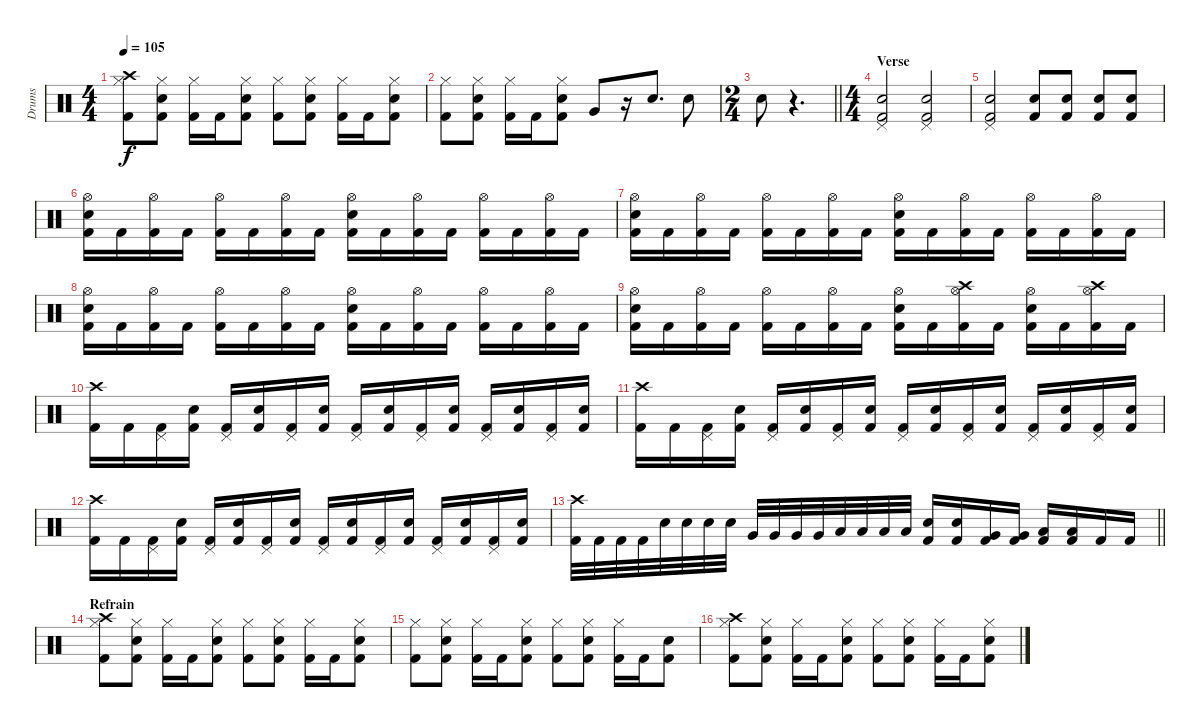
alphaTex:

\track ("Drums" "Drums") {instrument percussion}
\staff {score}
\articulation defaults
\ts (4 4)
\tempo 105
\clef neutral
\ks c
("Hi-Hat (closed)" "Crash high (hit)" "Kick (hit) 2").8{dy f} ("Hi-Hat (closed)" "Electric Snare (hit)" "Kick (hit) 2").8 ("Hi-Hat (closed)" "Kick (hit) 2").16 "Kick (hit) 2".16 ("Hi-Hat (closed)" "Electric Snare (hit)" "Kick (hit) 2").8 ("Hi-Hat (closed)" "Kick (hit) 2").8 ("Hi-Hat (closed)" "Electric Snare (hit)" "Kick (hit) 2").8 ("Hi-Hat (closed)" "Kick (hit) 2").16 "Kick (hit) 2".16 ("Hi-Hat (closed)" "Electric Snare (hit)" "Kick (hit) 2").8 |
("Hi-Hat (closed)" "Kick (hit) 2").8 ("Hi-Hat (closed)" "Electric Snare (hit)" "Kick (hit) 2").8 ("Hi-Hat (closed)" "Kick (hit) 2").16 "Kick (hit) 2".16 ("Hi-Hat (closed)" "Electric Snare (hit)" "Kick (hit) 2").8 "Very Low Tom (hit)".8 r.16 "Electric Snare (hit)".8{d} "Electric Snare (hit)".8 |
\ts (2 4)
\barLineRight lightlight "Electric Snare (hit)".8
r.4{d} |
\ts (4 4)
\section ("" "Verse")
("Pedal Hi-Hat (hit)" "Snare (hit) 2" "Kick (hit) 2").2 ("Pedal Hi-Hat (hit)" "Snare (hit) 2" "Kick (hit) 2").2 |
("Pedal Hi-Hat (hit)" "Snare (hit) 2" "Kick (hit) 2").2 ("Electric Snare (hit)" "Kick (hit) 2").8 ("Electric Snare (hit)" "Kick (hit) 2").8 ("Electric Snare (hit)" "Kick (hit) 2").8 ("Electric Snare (hit)" "Kick (hit) 2").8 |
("Hi-Hat (open)" "Electric Snare (hit)" "Kick (hit) 2").16 "Kick (hit) 2".16 ("Hi-Hat (open)" "Kick (hit) 2").16 "Kick (hit) 2".16 ("Hi-Hat (open)" "Kick (hit) 2").16 "Kick (hit) 2".16 ("Hi-Hat (open)" "Kick (hit) 2").16 "Kick (hit) 2".16 ("Hi-Hat (open)" "Electric Snare (hit)" "Kick (hit) 2").16 "Kick (hit) 2".16 ("Hi-Hat (open)" "Kick (hit) 2").16 "Kick (hit) 2".16 ("Hi-Hat (open)" "Kick (hit) 2").16 "Kick (hit) 2".16 ("Hi-Hat (open)" "Kick (hit) 2").16 "Kick (hit) 2".16 |
("Hi-Hat (open)" "Electric Snare (hit)" "Kick (hit) 2").16 "Kick (hit) 2".16 ("Hi-Hat (open)" "Kick (hit) 2").16 "Kick (hit) 2".16 ("Hi-Hat (open)" "Kick (hit) 2").16 "Kick (hit) 2".16 ("Hi-Hat (open)" "Kick (hit) 2").16 "Kick (hit) 2".16 ("Hi-Hat (open)" "Electric Snare (hit)" "Kick (hit) 2").16 "Kick (hit) 2".16 ("Hi-Hat (open)" "Kick (hit) 2").16 "Kick (hit) 2".16 ("Hi-Hat (open)" "Kick (hit) 2").16 "Kick (hit) 2".16 ("Hi-Hat (open)" "Kick (hit) 2").16 "Kick (hit) 2".16 |
("Hi-Hat (open)" "Electric Snare (hit)" "Kick (hit) 2").16 "Kick (hit) 2".16 ("Hi-Hat (open)" "Kick (hit) 2").16 "Kick (hit) 2".16 ("Hi-Hat (open)" "Kick (hit) 2").16 "Kick (hit) 2".16 ("Hi-Hat (open)" "Kick (hit) 2").16 "Kick (hit) 2".16 ("Hi-Hat (open)" "Electric Snare (hit)" "Kick (hit) 2").16 "Kick (hit) 2".16 ("Hi-Hat (open)" "Kick (hit) 2").16 "Kick (hit) 2".16 ("Hi-Hat (open)" "Kick (hit) 2").16 "Kick (hit) 2".16 ("Hi-Hat (open)" "Kick (hit) 2").16 "Kick (hit) 2".16 |
("Hi-Hat (open)" "Electric Snare (hit)" "Kick (hit) 2").16 "Kick (hit) 2".16 ("Hi-Hat (open)" "Kick (hit) 2").16 "Kick (hit) 2".16 ("Hi-Hat (open)" "Kick (hit) 2").16 "Kick (hit) 2".16 ("Hi-Hat (open)" "Kick (hit) 2").16 "Kick (hit) 2".16 ("Hi-Hat (open)" "Electric Snare (hit)" "Kick (hit) 2").16 "Kick (hit) 2".16 ("Hi-Hat (open)" "Crash high (hit)" "Kick (hit) 2").16 "Kick (hit) 2".16 ("Hi-Hat (open)" "Electric Snare (hit)" "Kick (hit) 2").16 "Kick (hit) 2".16 ("Hi-Hat (open)" "Crash high (hit)" "Kick (hit) 2").16 "Kick (hit) 2".16 |
("Crash high (hit)" "Kick (hit) 2").16 "Kick (hit) 2".16 ("Pedal Hi-Hat (hit)" "Kick (hit) 2").16 ("Electric Snare (hit)" "Kick (hit) 2").16 ("Pedal Hi-Hat (hit)" "Kick (hit) 2").16 ("Electric Snare (hit)" "Kick (hit) 2").16 ("Pedal Hi-Hat (hit)" "Kick (hit) 2").16 ("Electric Snare (hit)" "Kick (hit) 2").16 ("Pedal Hi-Hat (hit)" "Kick (hit) 2").16 ("Electric Snare (hit)" "Kick (hit) 2").16 ("Pedal Hi-Hat (hit)" "Kick (hit) 2").16 ("Electric Snare (hit)" "Kick (hit) 2").16 ("Pedal Hi-Hat (hit)" "Kick (hit) 2").16 ("Electric Snare (hit)" "Kick (hit) 2").16 ("Pedal Hi-Hat (hit)" "Kick (hit) 2").16 ("Electric Snare (hit)" "Kick (hit) 2").16 |
("Crash high (hit)" "Kick (hit) 2").16 "Kick (hit) 2".16 ("Pedal Hi-Hat (hit)" "Kick (hit) 2").16 ("Electric Snare (hit)" "Kick (hit) 2").16 ("Pedal Hi-Hat (hit)" "Kick (hit) 2").16 ("Electric Snare (hit)" "Kick (hit) 2").16 ("Pedal Hi-Hat (hit)" "Kick (hit) 2").16 ("Electric Snare (hit)" "Kick (hit) 2").16 ("Pedal Hi-Hat (hit)" "Kick (hit) 2").16 ("Electric Snare (hit)" "Kick (hit) 2").16 ("Pedal Hi-Hat (hit)" "Kick (hit) 2").16 ("Electric Snare (hit)" "Kick (hit) 2").16 ("Pedal Hi-Hat (hit)" "Kick (hit) 2").16 ("Electric Snare (hit)" "Kick (hit) 2").16 ("Pedal Hi-Hat (hit)" "Kick (hit) 2").16 ("Electric Snare (hit)" "Kick (hit) 2").16 |
("Crash high (hit)" "Kick (hit) 2").16 "Kick (hit) 2".16 ("Pedal Hi-Hat (hit)" "Kick (hit) 2").16 ("Electric Snare (hit)" "Kick (hit) 2").16 ("Pedal Hi-Hat (hit)" "Kick (hit) 2").16 ("Electric Snare (hit)" "Kick (hit) 2").16 ("Pedal Hi-Hat (hit)" "Kick (hit) 2").16 ("Electric Snare (hit)" "Kick (hit) 2").16 ("Pedal Hi-Hat (hit)" "Kick (hit) 2").16 ("Electric Snare (hit)" "Kick (hit) 2").16 ("Pedal Hi-Hat (hit)" "Kick (hit) 2").16 ("Electric Snare (hit)" "Kick (hit) 2").16 ("Pedal Hi-Hat (hit)" "Kick (hit) 2").16 ("Electric Snare (hit)" "Kick (hit) 2").16 ("Pedal Hi-Hat (hit)" "Kick (hit) 2").16 ("Electric Snare (hit)" "Kick (hit) 2").16 |
\barLineRight lightlight
("Crash high (hit)" "Kick (hit) 2").32 "Kick (hit) 2".32 "Kick (hit) 2".32 "Kick (hit) 2".32 "Electric Snare (hit)".32 "Electric Snare (hit)".32 "Electric Snare (hit)".32 "Electric Snare (hit)".32 "Very Low Tom (hit)".32 "Very Low Tom (hit)".32 "Very Low Tom (hit)".32 "Very Low Tom (hit)".32 "Low Tom (hit)".32 "Low Tom (hit)".32 "Low Tom (hit)".32 "Low Tom (hit)".32 ("Electric Snare (hit)" "Kick (hit) 2").16 ("Electric Snare (hit)" "Kick (hit) 2").16 ("Very Low Tom (hit)" "Kick (hit) 2").16 ("Very Low Tom (hit)" "Kick (hit) 2").16 ("Low Floor Tom (hit)" "Kick (hit) 2").16 ("Low Floor Tom (hit)" "Kick (hit) 2").16 "Kick (hit) 2".16 "Kick (hit) 2".16 |
\section ("" "Refrain")
("Hi-Hat (closed)" "Crash high (hit)" "Kick (hit) 2").8 ("Hi-Hat (closed)" "Electric Snare (hit)" "Kick (hit) 2").8 ("Hi-Hat (closed)" "Kick (hit) 2").16 "Kick (hit) 2".16 ("Hi-Hat (closed)" "Electric Snare (hit)" "Kick (hit) 2").8 ("Hi-Hat (closed)" "Kick (hit) 2").8 ("Hi-Hat (closed)" "Electric Snare (hit)" "Kick (hit) 2").8 ("Hi-Hat (closed)" "Kick (hit) 2").16 "Kick (hit) 2".16 ("Hi-Hat (closed)" "Electric Snare (hit)" "Kick (hit) 2").8 |
("Hi-Hat (closed)" "Kick (hit) 2").8 ("Hi-Hat (closed)" "Electric Snare (hit)" "Kick (hit) 2").8 ("Hi-Hat (closed)" "Kick (hit) 2").16 "Kick (hit) 2".16 ("Hi-Hat (closed)" "Electric Snare (hit)" "Kick (hit) 2").8 ("Hi-Hat (closed)" "Kick (hit) 2").8 ("Hi-Hat (closed)" "Electric Snare (hit)" "Kick (hit) 2").8 ("Hi-Hat (closed)" "Kick (hit) 2").16 "Kick (hit) 2".16 ("Electric Snare (hit)" "Kick (hit) 2").8 |
("Hi-Hat (closed)" "Crash high (hit)" "Kick (hit) 2").8 ("Hi-Hat (closed)" "Electric Snare (hit)" "Kick (hit) 2").8 ("Hi-Hat (closed)" "Kick (hit) 2").16 "Kick (hit) 2".16 ("Hi-Hat (closed)" "Electric Snare (hit)" "Kick (hit) 2").8 ("Hi-Hat (closed)" "Kick (hit) 2").8 ("Hi-Hat (closed)" "Electric Snare (hit)" "Kick (hit) 2").8 ("Hi-Hat (closed)" "Kick (hit) 2").16 "Kick (hit) 2".16 ("Hi-Hat (closed)" "Electric Snare (hit)" "Kick (hit) 2").8
